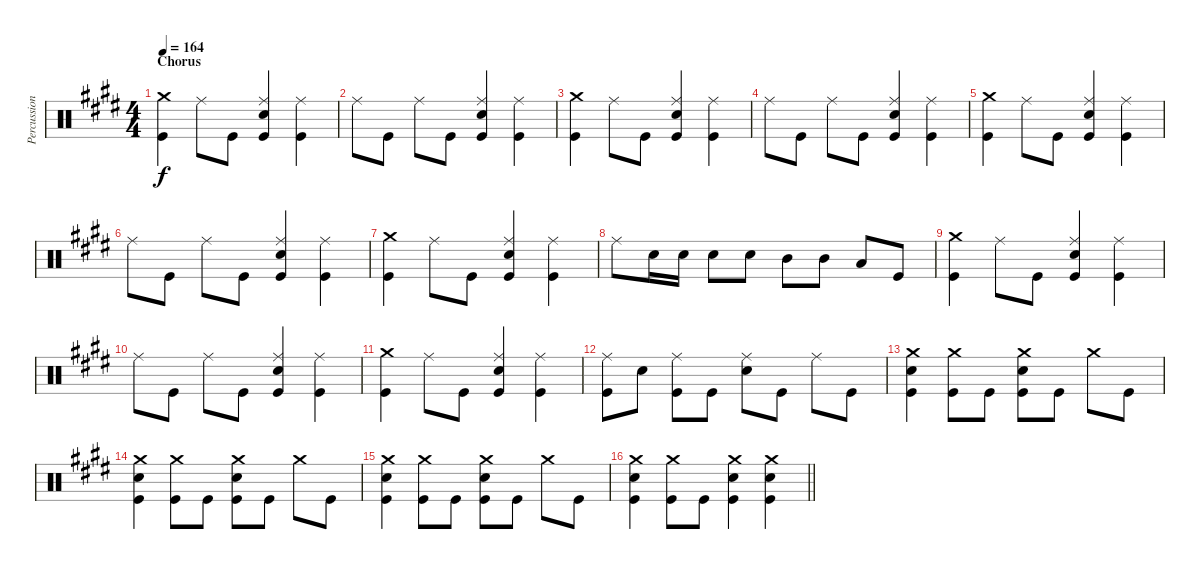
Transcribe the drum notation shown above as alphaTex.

\track ("Percussion" "Percussion") {instrument percussion}
\staff {score}
\articulation defaults
\ts (4 4)
\section ("" "Chorus")
\tempo 164
\clef neutral
\ks e
("Crash medium (hit)" "Kick (hit)").4{dy f} "Ride (middle)".8 "Kick (hit)".8 ("Ride (middle)" "Electric Snare (hit)" "Kick (hit)").4 ("Ride (middle)" "Kick (hit)").4 |
"Ride (middle)".8 "Kick (hit)".8 "Ride (middle)".8 "Kick (hit)".8 ("Ride (middle)" "Electric Snare (hit)" "Kick (hit)").4 ("Ride (middle)" "Kick (hit)").4 |
("Crash medium (hit)" "Kick (hit)").4 "Ride (middle)".8 "Kick (hit)".8 ("Ride (middle)" "Electric Snare (hit)" "Kick (hit)").4 ("Ride (middle)" "Kick (hit)").4 |
"Ride (middle)".8 "Kick (hit)".8 "Ride (middle)".8 "Kick (hit)".8 ("Ride (middle)" "Electric Snare (hit)" "Kick (hit)").4 ("Ride (middle)" "Kick (hit)").4 |
("Crash medium (hit)" "Kick (hit)").4 "Ride (middle)".8 "Kick (hit)".8 ("Ride (middle)" "Electric Snare (hit)" "Kick (hit)").4 ("Ride (middle)" "Kick (hit)").4 |
"Ride (middle)".8 "Kick (hit)".8 "Ride (middle)".8 "Kick (hit)".8 ("Ride (middle)" "Electric Snare (hit)" "Kick (hit)").4 ("Ride (middle)" "Kick (hit)").4 |
("Crash medium (hit)" "Kick (hit)").4 "Ride (middle)".8 "Kick (hit)".8 ("Ride (middle)" "Electric Snare (hit)" "Kick (hit)").4 ("Ride (middle)" "Kick (hit)").4 |
"Ride (middle)".8 "Electric Snare (hit)".16 "Electric Snare (hit)".16 "Electric Snare (hit)".8 "Electric Snare (hit)".8 "Mid Tom (hit)".8 "Mid Tom (hit)".8 "Low Tom (hit)".8 "Kick (hit)".8 |
("Crash medium (hit)" "Kick (hit)").4 "Ride (middle)".8 "Kick (hit)".8 ("Ride (middle)" "Electric Snare (hit)" "Kick (hit)").4 ("Ride (middle)" "Kick (hit)").4 |
"Ride (middle)".8 "Kick (hit)".8 "Ride (middle)".8 "Kick (hit)".8 ("Ride (middle)" "Electric Snare (hit)" "Kick (hit)").4 ("Ride (middle)" "Kick (hit)").4 |
("Crash medium (hit)" "Kick (hit)").4 "Ride (middle)".8 "Kick (hit)".8 ("Ride (middle)" "Electric Snare (hit)" "Kick (hit)").4 ("Ride (middle)" "Kick (hit)").4 |
("Ride (middle)" "Kick (hit)").8 "Electric Snare (hit)".8 ("Ride (middle)" "Kick (hit)").8 "Kick (hit)".8 ("Ride (middle)" "Electric Snare (hit)").8 "Kick (hit)".8 "Ride (middle)".8 "Kick (hit)".8 |
("Crash medium (hit)" "Electric Snare (hit)" "Kick (hit)").4 ("Crash medium (hit)" "Kick (hit)").8 "Kick (hit)".8 ("Crash medium (hit)" "Electric Snare (hit)" "Kick (hit)").8 "Kick (hit)".8 "Crash medium (hit)".8 "Kick (hit)".8 |
("Crash medium (hit)" "Electric Snare (hit)" "Kick (hit)").4 ("Crash medium (hit)" "Kick (hit)").8 "Kick (hit)".8 ("Crash medium (hit)" "Electric Snare (hit)" "Kick (hit)").8 "Kick (hit)".8 "Crash medium (hit)".8 "Kick (hit)".8 |
("Crash medium (hit)" "Electric Snare (hit)" "Kick (hit)").4 ("Crash medium (hit)" "Kick (hit)").8 "Kick (hit)".8 ("Crash medium (hit)" "Electric Snare (hit)" "Kick (hit)").8 "Kick (hit)".8 "Crash medium (hit)".8 "Kick (hit)".8 |
\barLineRight lightlight
("Crash medium (hit)" "Electric Snare (hit)" "Kick (hit)").4 ("Crash medium (hit)" "Kick (hit)").8 "Kick (hit)".8 ("Crash medium (hit)" "Electric Snare (hit)" "Kick (hit)").4 ("Crash medium (hit)" "Electric Snare (hit)" "Kick (hit)").4
